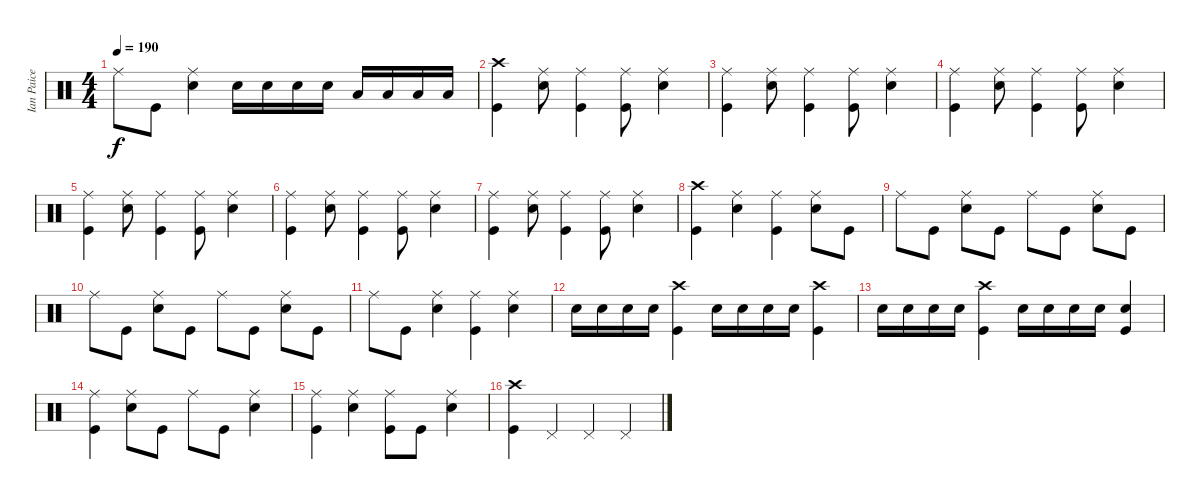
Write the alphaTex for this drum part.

\track ("Ian Paice" "Ian Paice") {instrument percussion}
\staff {score}
\articulation defaults
\ts (4 4)
\tempo 190
\clef neutral
\ks c "Ride (middle)".8{dy f} "Kick (hit)".8
("Snare (hit) 2" "Ride (middle)").4 "Snare (hit) 2".16 "Snare (hit) 2".16 "Snare (hit) 2".16 "Snare (hit) 2".16 "Low Tom (hit)".16 "Low Tom (hit)".16 "Low Tom (hit)".16 "Low Tom (hit)".16 |
("Kick (hit)" "Crash high (hit)").4 ("Snare (hit) 2" "Ride (middle)").8 ("Kick (hit)" "Ride (middle)").4 ("Kick (hit)" "Ride (middle)").8 ("Snare (hit) 2" "Ride (middle)").4 |
("Kick (hit)" "Ride (middle)").4 ("Snare (hit) 2" "Ride (middle)").8 ("Kick (hit)" "Ride (middle)").4 ("Kick (hit)" "Ride (middle)").8 ("Snare (hit) 2" "Ride (middle)").4 |
("Kick (hit)" "Ride (middle)").4 ("Snare (hit) 2" "Ride (middle)").8 ("Kick (hit)" "Ride (middle)").4 ("Kick (hit)" "Ride (middle)").8 ("Snare (hit) 2" "Ride (middle)").4 |
("Kick (hit)" "Ride (middle)").4 ("Snare (hit) 2" "Ride (middle)").8 ("Kick (hit)" "Ride (middle)").4 ("Kick (hit)" "Ride (middle)").8 ("Snare (hit) 2" "Ride (middle)").4 |
("Kick (hit)" "Ride (middle)").4 ("Snare (hit) 2" "Ride (middle)").8 ("Kick (hit)" "Ride (middle)").4 ("Kick (hit)" "Ride (middle)").8 ("Snare (hit) 2" "Ride (middle)").4 |
("Kick (hit)" "Ride (middle)").4 ("Snare (hit) 2" "Ride (middle)").8 ("Kick (hit)" "Ride (middle)").4 ("Kick (hit)" "Ride (middle)").8 ("Snare (hit) 2" "Ride (middle)").4 |
("Kick (hit)" "Crash high (hit)").4 ("Snare (hit) 2" "Ride (middle)").4 ("Kick (hit)" "Ride (middle)").4 ("Snare (hit) 2" "Ride (middle)").8 "Kick (hit)".8 |
"Ride (middle)".8 "Kick (hit)".8 ("Snare (hit) 2" "Ride (middle)").8 "Kick (hit)".8 "Ride (middle)".8 "Kick (hit)".8 ("Snare (hit) 2" "Ride (middle)").8 "Kick (hit)".8 |
"Ride (middle)".8 "Kick (hit)".8 ("Snare (hit) 2" "Ride (middle)").8 "Kick (hit)".8 "Ride (middle)".8 "Kick (hit)".8 ("Snare (hit) 2" "Ride (middle)").8 "Kick (hit)".8 |
"Ride (middle)".8 "Kick (hit)".8 ("Snare (hit) 2" "Ride (middle)").4 ("Ride (middle)" "Kick (hit)").4 ("Snare (hit) 2" "Ride (middle)").4 |
"Snare (hit) 2".16 "Snare (hit) 2".16 "Snare (hit) 2".16 "Snare (hit) 2".16 ("Crash high (hit)" "Kick (hit)").4 "Snare (hit) 2".16 "Snare (hit) 2".16 "Snare (hit) 2".16 "Snare (hit) 2".16 ("Kick (hit)" "Crash high (hit)").4 |
"Snare (hit) 2".16 "Snare (hit) 2".16 "Snare (hit) 2".16 "Snare (hit) 2".16 ("Crash high (hit)" "Kick (hit)").4 "Snare (hit) 2".16 "Snare (hit) 2".16 "Snare (hit) 2".16 "Snare (hit) 2".16 ("Snare (hit) 2" "Kick (hit)").4 |
("Kick (hit)" "Ride (middle)").4 ("Snare (hit) 2" "Ride (middle)").8 "Kick (hit)".8 "Ride (middle)".8 "Kick (hit)".8 ("Snare (hit) 2" "Ride (middle)").4 |
("Kick (hit)" "Ride (middle)").4 ("Snare (hit) 2" "Ride (middle)").4 ("Ride (middle)" "Kick (hit)").8 "Kick (hit)".8 ("Snare (hit) 2" "Ride (middle)").4 |
("Crash high (hit)" "Kick (hit)").4 "Pedal Hi-Hat (hit)".4 "Pedal Hi-Hat (hit)".4 "Pedal Hi-Hat (hit)".4
